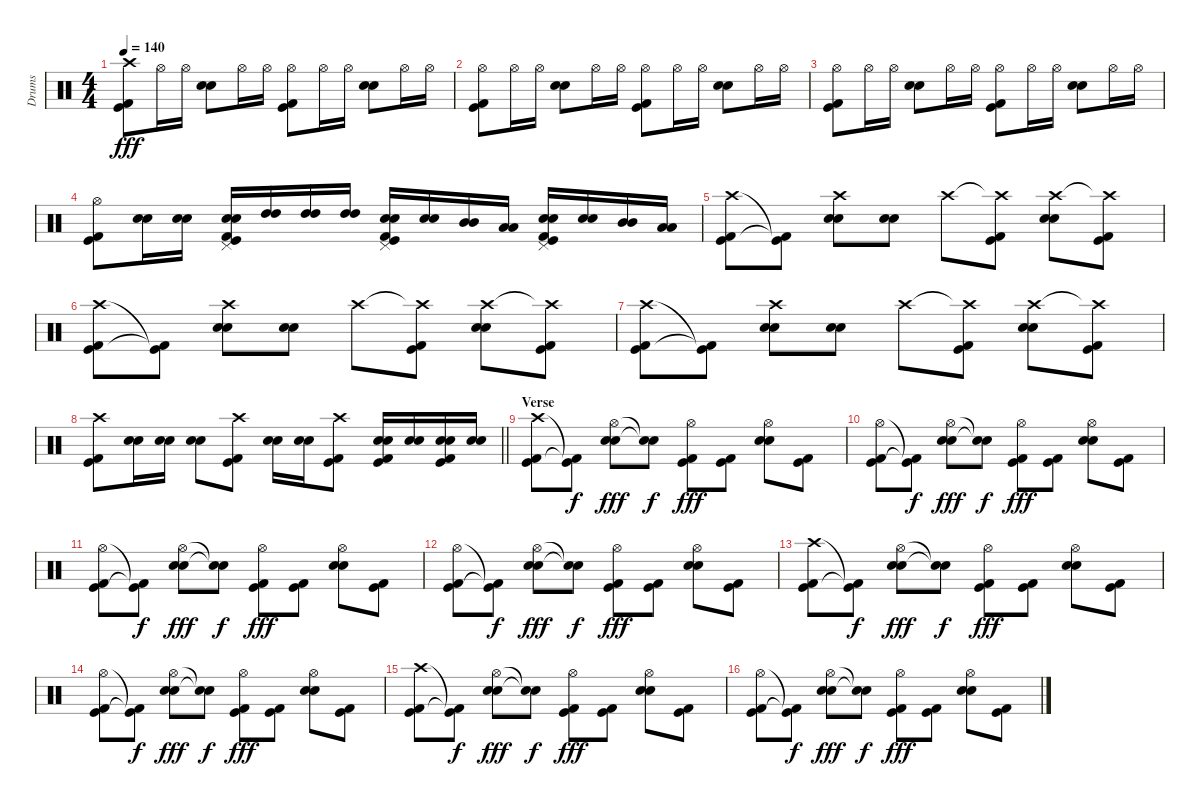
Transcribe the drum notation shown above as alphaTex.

\track ("Drums" "Drums") {instrument percussion}
\staff {score}
\articulation defaults
\ts (4 4)
\tempo 140
\clef neutral
\ks c
("Crash high (hit)" "Kick (hit)" "Kick (hit) 2").8{dy fff} "Hi-Hat (open)".16 "Hi-Hat (open)".16 ("Electric Snare (hit)" "Electric Snare (hit)").8 "Hi-Hat (open)".16 "Hi-Hat (open)".16 ("Hi-Hat (open)" "Kick (hit)" "Kick (hit) 2").8 "Hi-Hat (open)".16 "Hi-Hat (open)".16 ("Electric Snare (hit)" "Electric Snare (hit)").8 "Hi-Hat (open)".16 "Hi-Hat (open)".16 |
("Hi-Hat (open)" "Kick (hit)" "Kick (hit) 2").8 "Hi-Hat (open)".16 "Hi-Hat (open)".16 ("Electric Snare (hit)" "Electric Snare (hit)").8 "Hi-Hat (open)".16 "Hi-Hat (open)".16 ("Hi-Hat (open)" "Kick (hit)" "Kick (hit) 2").8 "Hi-Hat (open)".16 "Hi-Hat (open)".16 ("Electric Snare (hit)" "Electric Snare (hit)").8 "Hi-Hat (open)".16 "Hi-Hat (open)".16 |
("Hi-Hat (open)" "Kick (hit)" "Kick (hit) 2").8 "Hi-Hat (open)".16 "Hi-Hat (open)".16 ("Electric Snare (hit)" "Electric Snare (hit)").8 "Hi-Hat (open)".16 "Hi-Hat (open)".16 ("Hi-Hat (open)" "Kick (hit)" "Kick (hit) 2").8 "Hi-Hat (open)".16 "Hi-Hat (open)".16 ("Electric Snare (hit)" "Electric Snare (hit)").8 "Hi-Hat (open)".16 "Hi-Hat (open)".16 |
("Hi-Hat (open)" "Kick (hit)" "Kick (hit) 2").8 ("Electric Snare (hit)" "Electric Snare (hit)").16 ("Electric Snare (hit)" "Electric Snare (hit)").16 ("Pedal Hi-Hat (hit)" "Electric Snare (hit)" "Electric Snare (hit)" "Kick (hit)" "Kick (hit) 2").16 ("High Tom (hit)" "High Tom (hit)").16 ("High Tom (hit)" "High Tom (hit)").16 ("High Tom (hit)" "High Tom (hit)").16 ("Pedal Hi-Hat (hit)" "Electric Snare (hit)" "Electric Snare (hit)" "Kick (hit)" "Kick (hit) 2").16 ("Electric Snare (hit)" "Electric Snare (hit)").16 ("Mid Tom (hit)" "Mid Tom (hit)").16 ("Low Tom (hit)" "Low Tom (hit)").16 ("Pedal Hi-Hat (hit)" "Electric Snare (hit)" "Electric Snare (hit)" "Kick (hit)" "Kick (hit) 2").16 ("Electric Snare (hit)" "Electric Snare (hit)").16 ("Mid Tom (hit)" "Mid Tom (hit)").16 ("Low Tom (hit)" "Low Tom (hit)").16 |
("Crash high (hit)" "Kick (hit)" "Kick (hit) 2").8 ("Kick (hit)"{t} "Kick (hit) 2"{t}).8 ("Crash high (hit)" "Electric Snare (hit)" "Electric Snare (hit)").8 ("Electric Snare (hit)" "Electric Snare (hit)").8 "Crash high (hit)".8 ("Crash high (hit)"{t} "Kick (hit)" "Kick (hit) 2").8 ("Crash high (hit)" "Electric Snare (hit)" "Electric Snare (hit)").8 ("Crash high (hit)"{t} "Kick (hit)" "Kick (hit) 2").8 |
("Crash high (hit)" "Kick (hit)" "Kick (hit) 2").8 ("Kick (hit)"{t} "Kick (hit) 2"{t}).8 ("Crash high (hit)" "Electric Snare (hit)" "Electric Snare (hit)").8 ("Electric Snare (hit)" "Electric Snare (hit)").8 "Crash high (hit)".8 ("Crash high (hit)"{t} "Kick (hit)" "Kick (hit) 2").8 ("Crash high (hit)" "Electric Snare (hit)" "Electric Snare (hit)").8 ("Crash high (hit)"{t} "Kick (hit)" "Kick (hit) 2").8 |
("Crash high (hit)" "Kick (hit)" "Kick (hit) 2").8 ("Kick (hit)"{t} "Kick (hit) 2"{t}).8 ("Crash high (hit)" "Electric Snare (hit)" "Electric Snare (hit)").8 ("Electric Snare (hit)" "Electric Snare (hit)").8 "Crash high (hit)".8 ("Crash high (hit)"{t} "Kick (hit)" "Kick (hit) 2").8 ("Crash high (hit)" "Electric Snare (hit)" "Electric Snare (hit)").8 ("Crash high (hit)"{t} "Kick (hit)" "Kick (hit) 2").8 |
\barLineRight lightlight
("Crash high (hit)" "Kick (hit)" "Kick (hit) 2").8 ("Electric Snare (hit)" "Electric Snare (hit)").16 ("Electric Snare (hit)" "Electric Snare (hit)").16 ("Electric Snare (hit)" "Electric Snare (hit)").8 ("Crash high (hit)" "Kick (hit)" "Kick (hit) 2").8 ("Electric Snare (hit)" "Electric Snare (hit)").16 ("Electric Snare (hit)" "Electric Snare (hit)").16 ("Crash high (hit)" "Kick (hit)" "Kick (hit) 2").8 ("Electric Snare (hit)" "Electric Snare (hit)" "Kick (hit)" "Kick (hit) 2").16 ("Electric Snare (hit)" "Electric Snare (hit)").16 ("Electric Snare (hit)" "Electric Snare (hit)" "Kick (hit)" "Kick (hit) 2").16 ("Electric Snare (hit)" "Electric Snare (hit)").16 |
\section ("" "Verse")
("Crash high (hit)" "Kick (hit)" "Kick (hit) 2").8 ("Kick (hit)"{t} "Kick (hit) 2"{t}).8{dy f} ("Hi-Hat (open)" "Electric Snare (hit)" "Electric Snare (hit)").8{dy fff} ("Electric Snare (hit)"{t} "Electric Snare (hit)"{t}).8{dy f} ("Hi-Hat (open)" "Kick (hit)" "Kick (hit) 2").8{dy fff} ("Kick (hit)" "Kick (hit) 2").8 ("Hi-Hat (open)" "Electric Snare (hit)" "Electric Snare (hit)").8 ("Kick (hit)" "Kick (hit) 2").8 |
("Hi-Hat (open)" "Kick (hit)" "Kick (hit) 2").8 ("Kick (hit)"{t} "Kick (hit) 2"{t}).8{dy f} ("Hi-Hat (open)" "Electric Snare (hit)" "Electric Snare (hit)").8{dy fff} ("Electric Snare (hit)"{t} "Electric Snare (hit)"{t}).8{dy f} ("Hi-Hat (open)" "Kick (hit)" "Kick (hit) 2").8{dy fff} ("Kick (hit)" "Kick (hit) 2").8 ("Hi-Hat (open)" "Electric Snare (hit)" "Electric Snare (hit)").8 ("Kick (hit)" "Kick (hit) 2").8 |
("Hi-Hat (open)" "Kick (hit)" "Kick (hit) 2").8 ("Kick (hit)"{t} "Kick (hit) 2"{t}).8{dy f} ("Hi-Hat (open)" "Electric Snare (hit)" "Electric Snare (hit)").8{dy fff} ("Electric Snare (hit)"{t} "Electric Snare (hit)"{t}).8{dy f} ("Hi-Hat (open)" "Kick (hit)" "Kick (hit) 2").8{dy fff} ("Kick (hit)" "Kick (hit) 2").8 ("Hi-Hat (open)" "Electric Snare (hit)" "Electric Snare (hit)").8 ("Kick (hit)" "Kick (hit) 2").8 |
("Hi-Hat (open)" "Kick (hit)" "Kick (hit) 2").8 ("Kick (hit)"{t} "Kick (hit) 2"{t}).8{dy f} ("Hi-Hat (open)" "Electric Snare (hit)" "Electric Snare (hit)").8{dy fff} ("Electric Snare (hit)"{t} "Electric Snare (hit)"{t}).8{dy f} ("Hi-Hat (open)" "Kick (hit)" "Kick (hit) 2").8{dy fff} ("Kick (hit)" "Kick (hit) 2").8 ("Hi-Hat (open)" "Electric Snare (hit)" "Electric Snare (hit)").8 ("Kick (hit)" "Kick (hit) 2").8 |
("Crash high (hit)" "Kick (hit)" "Kick (hit) 2").8 ("Kick (hit)"{t} "Kick (hit) 2"{t}).8{dy f} ("Hi-Hat (open)" "Electric Snare (hit)" "Electric Snare (hit)").8{dy fff} ("Electric Snare (hit)"{t} "Electric Snare (hit)"{t}).8{dy f} ("Hi-Hat (open)" "Kick (hit)" "Kick (hit) 2").8{dy fff} ("Kick (hit)" "Kick (hit) 2").8 ("Hi-Hat (open)" "Electric Snare (hit)" "Electric Snare (hit)").8 ("Kick (hit)" "Kick (hit) 2").8 |
("Hi-Hat (open)" "Kick (hit)" "Kick (hit) 2").8 ("Kick (hit)"{t} "Kick (hit) 2"{t}).8{dy f} ("Hi-Hat (open)" "Electric Snare (hit)" "Electric Snare (hit)").8{dy fff} ("Electric Snare (hit)"{t} "Electric Snare (hit)"{t}).8{dy f} ("Hi-Hat (open)" "Kick (hit)" "Kick (hit) 2").8{dy fff} ("Kick (hit)" "Kick (hit) 2").8 ("Hi-Hat (open)" "Electric Snare (hit)" "Electric Snare (hit)").8 ("Kick (hit)" "Kick (hit) 2").8 |
("Crash high (hit)" "Kick (hit)" "Kick (hit) 2").8 ("Kick (hit)"{t} "Kick (hit) 2"{t}).8{dy f} ("Hi-Hat (open)" "Electric Snare (hit)" "Electric Snare (hit)").8{dy fff} ("Electric Snare (hit)"{t} "Electric Snare (hit)"{t}).8{dy f} ("Hi-Hat (open)" "Kick (hit)" "Kick (hit) 2").8{dy fff} ("Kick (hit)" "Kick (hit) 2").8 ("Hi-Hat (open)" "Electric Snare (hit)" "Electric Snare (hit)").8 ("Kick (hit)" "Kick (hit) 2").8 |
("Hi-Hat (open)" "Kick (hit)" "Kick (hit) 2").8 ("Kick (hit)"{t} "Kick (hit) 2"{t}).8{dy f} ("Hi-Hat (open)" "Electric Snare (hit)" "Electric Snare (hit)").8{dy fff} ("Electric Snare (hit)"{t} "Electric Snare (hit)"{t}).8{dy f} ("Hi-Hat (open)" "Kick (hit)" "Kick (hit) 2").8{dy fff} ("Kick (hit)" "Kick (hit) 2").8 ("Hi-Hat (open)" "Electric Snare (hit)" "Electric Snare (hit)").8 ("Kick (hit)" "Kick (hit) 2").8
